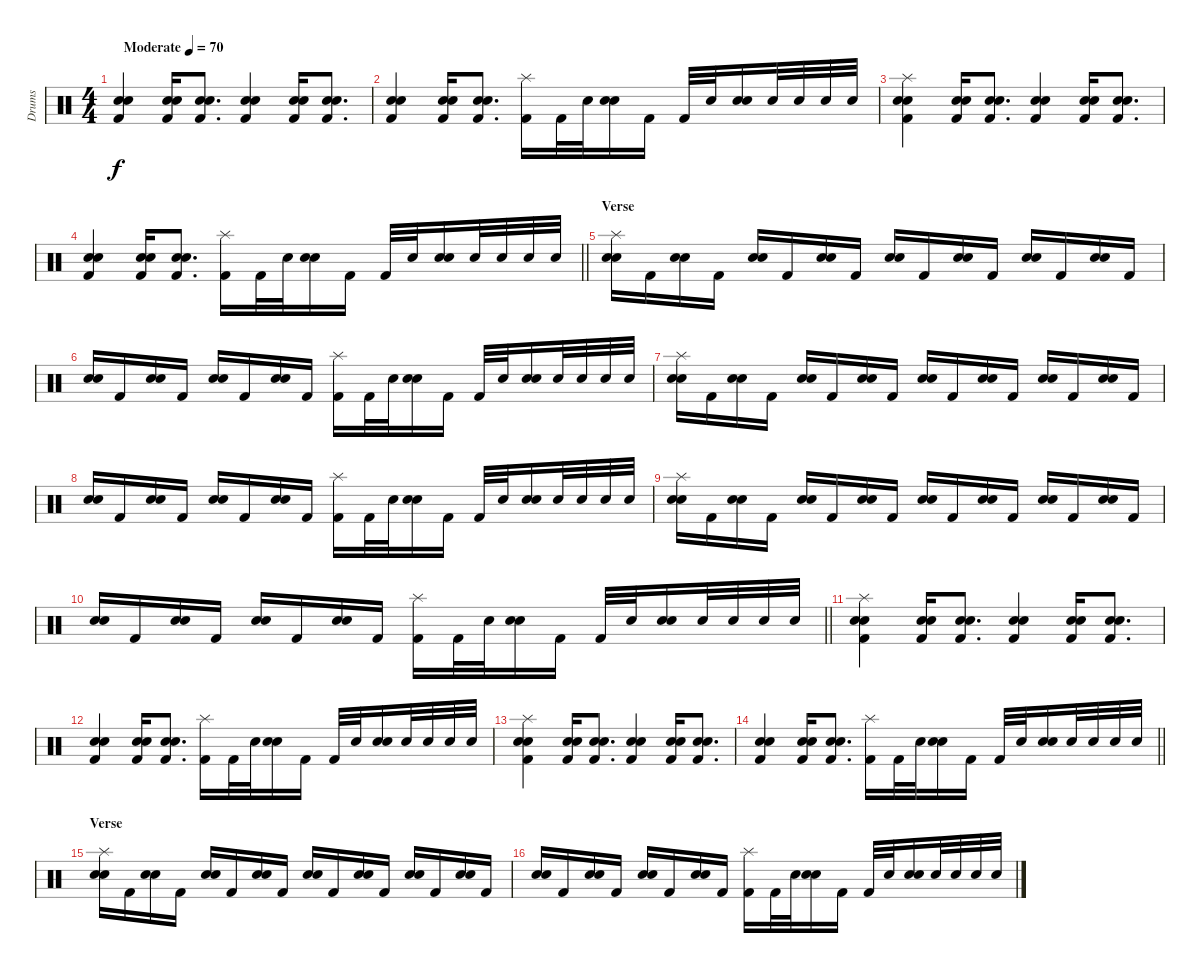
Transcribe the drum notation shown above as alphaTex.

\track ("Drums" "Drums") {instrument percussion}
\staff {score}
\articulation defaults
\ts (4 4)
\tempo (70 "Moderate")
\clef neutral
\ks c
("Snare (hit) 2" "Electric Snare (hit)" "Kick (hit) 2").4{dy f} ("Snare (hit) 2" "Electric Snare (hit)" "Kick (hit) 2").16 ("Snare (hit) 2" "Electric Snare (hit)" "Kick (hit) 2").8{d} ("Snare (hit) 2" "Electric Snare (hit)" "Kick (hit) 2").4 ("Snare (hit) 2" "Electric Snare (hit)" "Kick (hit) 2").16 ("Snare (hit) 2" "Electric Snare (hit)" "Kick (hit) 2").8{d} |
("Snare (hit) 2" "Electric Snare (hit)" "Kick (hit) 2").4 ("Snare (hit) 2" "Electric Snare (hit)" "Kick (hit) 2").16 ("Snare (hit) 2" "Electric Snare (hit)" "Kick (hit) 2").8{d} ("Splash (hit)" "Kick (hit) 2").16 "Kick (hit) 2".32 "Snare (hit) 2".32 ("Snare (hit) 2" "Electric Snare (hit)").16 "Kick (hit) 2".16 "Kick (hit) 2".32 "Snare (hit) 2".32 ("Snare (hit) 2" "Electric Snare (hit)").16 "Snare (hit) 2".32 "Snare (hit) 2".32 "Snare (hit) 2".32 "Snare (hit) 2".32 |
("Splash (hit)" "Snare (hit) 2" "Electric Snare (hit)" "Kick (hit) 2").4 ("Snare (hit) 2" "Electric Snare (hit)" "Kick (hit) 2").16 ("Snare (hit) 2" "Electric Snare (hit)" "Kick (hit) 2").8{d} ("Snare (hit) 2" "Electric Snare (hit)" "Kick (hit) 2").4 ("Snare (hit) 2" "Electric Snare (hit)" "Kick (hit) 2").16 ("Snare (hit) 2" "Electric Snare (hit)" "Kick (hit) 2").8{d} |
\barLineRight lightlight
("Snare (hit) 2" "Electric Snare (hit)" "Kick (hit) 2").4 ("Snare (hit) 2" "Electric Snare (hit)" "Kick (hit) 2").16 ("Snare (hit) 2" "Electric Snare (hit)" "Kick (hit) 2").8{d} ("Splash (hit)" "Kick (hit) 2").16 "Kick (hit) 2".32 "Snare (hit) 2".32 ("Snare (hit) 2" "Electric Snare (hit)").16 "Kick (hit) 2".16 "Kick (hit) 2".32 "Snare (hit) 2".32 ("Snare (hit) 2" "Electric Snare (hit)").16 "Snare (hit) 2".32 "Snare (hit) 2".32 "Snare (hit) 2".32 "Snare (hit) 2".32 |
\section ("" "Verse")
("Splash (hit)" "Snare (hit) 2" "Electric Snare (hit)").16 "Kick (hit) 2".16 ("Snare (hit) 2" "Electric Snare (hit)").16 "Kick (hit) 2".16 ("Snare (hit) 2" "Electric Snare (hit)").16 "Kick (hit) 2".16 ("Snare (hit) 2" "Electric Snare (hit)").16 "Kick (hit) 2".16 ("Snare (hit) 2" "Electric Snare (hit)").16 "Kick (hit) 2".16 ("Snare (hit) 2" "Electric Snare (hit)").16 "Kick (hit) 2".16 ("Snare (hit) 2" "Electric Snare (hit)").16 "Kick (hit) 2".16 ("Snare (hit) 2" "Electric Snare (hit)").16 "Kick (hit) 2".16 |
("Snare (hit) 2" "Electric Snare (hit)").16 "Kick (hit) 2".16 ("Snare (hit) 2" "Electric Snare (hit)").16 "Kick (hit) 2".16 ("Snare (hit) 2" "Electric Snare (hit)").16 "Kick (hit) 2".16 ("Snare (hit) 2" "Electric Snare (hit)").16 "Kick (hit) 2".16 ("Splash (hit)" "Kick (hit) 2").16 "Kick (hit) 2".32 "Snare (hit) 2".32 ("Snare (hit) 2" "Electric Snare (hit)").16 "Kick (hit) 2".16 "Kick (hit) 2".32 "Snare (hit) 2".32 ("Snare (hit) 2" "Electric Snare (hit)").16 "Snare (hit) 2".32 "Snare (hit) 2".32 "Snare (hit) 2".32 "Snare (hit) 2".32 |
("Splash (hit)" "Snare (hit) 2" "Electric Snare (hit)").16 "Kick (hit) 2".16 ("Snare (hit) 2" "Electric Snare (hit)").16 "Kick (hit) 2".16 ("Snare (hit) 2" "Electric Snare (hit)").16 "Kick (hit) 2".16 ("Snare (hit) 2" "Electric Snare (hit)").16 "Kick (hit) 2".16 ("Snare (hit) 2" "Electric Snare (hit)").16 "Kick (hit) 2".16 ("Snare (hit) 2" "Electric Snare (hit)").16 "Kick (hit) 2".16 ("Snare (hit) 2" "Electric Snare (hit)").16 "Kick (hit) 2".16 ("Snare (hit) 2" "Electric Snare (hit)").16 "Kick (hit) 2".16 |
("Snare (hit) 2" "Electric Snare (hit)").16 "Kick (hit) 2".16 ("Snare (hit) 2" "Electric Snare (hit)").16 "Kick (hit) 2".16 ("Snare (hit) 2" "Electric Snare (hit)").16 "Kick (hit) 2".16 ("Snare (hit) 2" "Electric Snare (hit)").16 "Kick (hit) 2".16 ("Splash (hit)" "Kick (hit) 2").16 "Kick (hit) 2".32 "Snare (hit) 2".32 ("Snare (hit) 2" "Electric Snare (hit)").16 "Kick (hit) 2".16 "Kick (hit) 2".32 "Snare (hit) 2".32 ("Snare (hit) 2" "Electric Snare (hit)").16 "Snare (hit) 2".32 "Snare (hit) 2".32 "Snare (hit) 2".32 "Snare (hit) 2".32 |
("Splash (hit)" "Snare (hit) 2" "Electric Snare (hit)").16 "Kick (hit) 2".16 ("Snare (hit) 2" "Electric Snare (hit)").16 "Kick (hit) 2".16 ("Snare (hit) 2" "Electric Snare (hit)").16 "Kick (hit) 2".16 ("Snare (hit) 2" "Electric Snare (hit)").16 "Kick (hit) 2".16 ("Snare (hit) 2" "Electric Snare (hit)").16 "Kick (hit) 2".16 ("Snare (hit) 2" "Electric Snare (hit)").16 "Kick (hit) 2".16 ("Snare (hit) 2" "Electric Snare (hit)").16 "Kick (hit) 2".16 ("Snare (hit) 2" "Electric Snare (hit)").16 "Kick (hit) 2".16 |
\barLineRight lightlight
("Snare (hit) 2" "Electric Snare (hit)").16 "Kick (hit) 2".16 ("Snare (hit) 2" "Electric Snare (hit)").16 "Kick (hit) 2".16 ("Snare (hit) 2" "Electric Snare (hit)").16 "Kick (hit) 2".16 ("Snare (hit) 2" "Electric Snare (hit)").16 "Kick (hit) 2".16 ("Splash (hit)" "Kick (hit) 2").16 "Kick (hit) 2".32 "Snare (hit) 2".32 ("Snare (hit) 2" "Electric Snare (hit)").16 "Kick (hit) 2".16 "Kick (hit) 2".32 "Snare (hit) 2".32 ("Snare (hit) 2" "Electric Snare (hit)").16 "Snare (hit) 2".32 "Snare (hit) 2".32 "Snare (hit) 2".32 "Snare (hit) 2".32 |
("Splash (hit)" "Snare (hit) 2" "Electric Snare (hit)" "Kick (hit) 2").4 ("Snare (hit) 2" "Electric Snare (hit)" "Kick (hit) 2").16 ("Snare (hit) 2" "Electric Snare (hit)" "Kick (hit) 2").8{d} ("Snare (hit) 2" "Electric Snare (hit)" "Kick (hit) 2").4 ("Snare (hit) 2" "Electric Snare (hit)" "Kick (hit) 2").16 ("Snare (hit) 2" "Electric Snare (hit)" "Kick (hit) 2").8{d} |
("Snare (hit) 2" "Electric Snare (hit)" "Kick (hit) 2").4 ("Snare (hit) 2" "Electric Snare (hit)" "Kick (hit) 2").16 ("Snare (hit) 2" "Electric Snare (hit)" "Kick (hit) 2").8{d} ("Splash (hit)" "Kick (hit) 2").16 "Kick (hit) 2".32 "Snare (hit) 2".32 ("Snare (hit) 2" "Electric Snare (hit)").16 "Kick (hit) 2".16 "Kick (hit) 2".32 "Snare (hit) 2".32 ("Snare (hit) 2" "Electric Snare (hit)").16 "Snare (hit) 2".32 "Snare (hit) 2".32 "Snare (hit) 2".32 "Snare (hit) 2".32 |
("Splash (hit)" "Snare (hit) 2" "Electric Snare (hit)" "Kick (hit) 2").4 ("Snare (hit) 2" "Electric Snare (hit)" "Kick (hit) 2").16 ("Snare (hit) 2" "Electric Snare (hit)" "Kick (hit) 2").8{d} ("Snare (hit) 2" "Electric Snare (hit)" "Kick (hit) 2").4 ("Snare (hit) 2" "Electric Snare (hit)" "Kick (hit) 2").16 ("Snare (hit) 2" "Electric Snare (hit)" "Kick (hit) 2").8{d} |
\barLineRight lightlight
("Snare (hit) 2" "Electric Snare (hit)" "Kick (hit) 2").4 ("Snare (hit) 2" "Electric Snare (hit)" "Kick (hit) 2").16 ("Snare (hit) 2" "Electric Snare (hit)" "Kick (hit) 2").8{d} ("Splash (hit)" "Kick (hit) 2").16 "Kick (hit) 2".32 "Snare (hit) 2".32 ("Snare (hit) 2" "Electric Snare (hit)").16 "Kick (hit) 2".16 "Kick (hit) 2".32 "Snare (hit) 2".32 ("Snare (hit) 2" "Electric Snare (hit)").16 "Snare (hit) 2".32 "Snare (hit) 2".32 "Snare (hit) 2".32 "Snare (hit) 2".32 |
\section ("" "Verse")
("Splash (hit)" "Snare (hit) 2" "Electric Snare (hit)").16 "Kick (hit) 2".16 ("Snare (hit) 2" "Electric Snare (hit)").16 "Kick (hit) 2".16 ("Snare (hit) 2" "Electric Snare (hit)").16 "Kick (hit) 2".16 ("Snare (hit) 2" "Electric Snare (hit)").16 "Kick (hit) 2".16 ("Snare (hit) 2" "Electric Snare (hit)").16 "Kick (hit) 2".16 ("Snare (hit) 2" "Electric Snare (hit)").16 "Kick (hit) 2".16 ("Snare (hit) 2" "Electric Snare (hit)").16 "Kick (hit) 2".16 ("Snare (hit) 2" "Electric Snare (hit)").16 "Kick (hit) 2".16 |
("Snare (hit) 2" "Electric Snare (hit)").16 "Kick (hit) 2".16 ("Snare (hit) 2" "Electric Snare (hit)").16 "Kick (hit) 2".16 ("Snare (hit) 2" "Electric Snare (hit)").16 "Kick (hit) 2".16 ("Snare (hit) 2" "Electric Snare (hit)").16 "Kick (hit) 2".16 ("Splash (hit)" "Kick (hit) 2").16 "Kick (hit) 2".32 "Snare (hit) 2".32 ("Snare (hit) 2" "Electric Snare (hit)").16 "Kick (hit) 2".16 "Kick (hit) 2".32 "Snare (hit) 2".32 ("Snare (hit) 2" "Electric Snare (hit)").16 "Snare (hit) 2".32 "Snare (hit) 2".32 "Snare (hit) 2".32 "Snare (hit) 2".32
